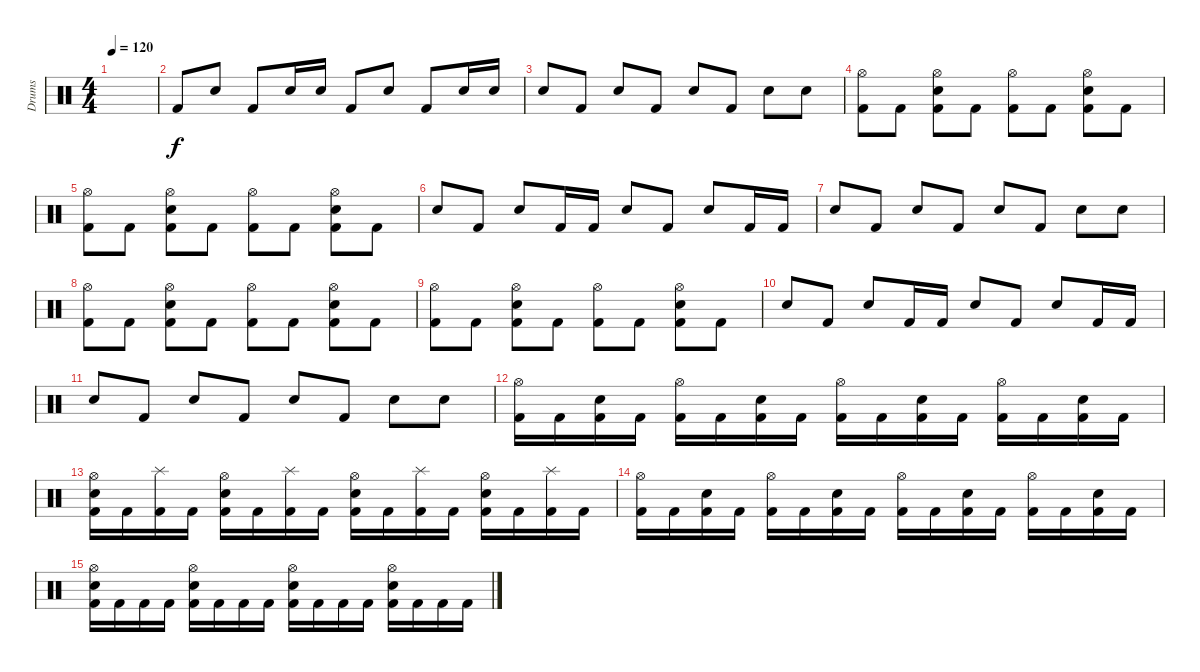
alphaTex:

\track ("Drums" "Drums") {instrument percussion}
\staff {score}
\articulation defaults
\ts (4 4)
\tempo 120
\clef neutral
\ks c
|
"Kick (hit) 2".8{dy f} "Electric Snare (hit)".8 "Kick (hit) 2".8 "Electric Snare (hit)".16 "Electric Snare (hit)".16 "Kick (hit) 2".8 "Electric Snare (hit)".8 "Kick (hit) 2".8 "Electric Snare (hit)".16 "Electric Snare (hit)".16 |
"Electric Snare (hit)".8 "Kick (hit) 2".8 "Electric Snare (hit)".8 "Kick (hit) 2".8 "Electric Snare (hit)".8 "Kick (hit) 2".8 "Electric Snare (hit)".8 "Electric Snare (hit)".8 |
("Hi-Hat (open)" "Kick (hit) 2").8 "Kick (hit) 2".8 ("Hi-Hat (open)" "Electric Snare (hit)" "Kick (hit) 2").8 "Kick (hit) 2".8 ("Hi-Hat (open)" "Kick (hit) 2").8 "Kick (hit) 2".8 ("Hi-Hat (open)" "Electric Snare (hit)" "Kick (hit) 2").8 "Kick (hit) 2".8 |
("Hi-Hat (open)" "Kick (hit) 2").8 "Kick (hit) 2".8 ("Hi-Hat (open)" "Electric Snare (hit)" "Kick (hit) 2").8 "Kick (hit) 2".8 ("Hi-Hat (open)" "Kick (hit) 2").8 "Kick (hit) 2".8 ("Hi-Hat (open)" "Electric Snare (hit)" "Kick (hit) 2").8 "Kick (hit) 2".8 |
"Electric Snare (hit)".8 "Kick (hit) 2".8 "Electric Snare (hit)".8 "Kick (hit) 2".16 "Kick (hit) 2".16 "Electric Snare (hit)".8 "Kick (hit) 2".8 "Electric Snare (hit)".8 "Kick (hit) 2".16 "Kick (hit) 2".16 |
"Electric Snare (hit)".8 "Kick (hit) 2".8 "Electric Snare (hit)".8 "Kick (hit) 2".8 "Electric Snare (hit)".8 "Kick (hit) 2".8 "Electric Snare (hit)".8 "Electric Snare (hit)".8 |
("Hi-Hat (open)" "Kick (hit) 2").8{volume 9} "Kick (hit) 2".8 ("Hi-Hat (open)" "Electric Snare (hit)" "Kick (hit) 2").8 "Kick (hit) 2".8 ("Hi-Hat (open)" "Kick (hit) 2").8 "Kick (hit) 2".8 ("Hi-Hat (open)" "Electric Snare (hit)" "Kick (hit) 2").8 "Kick (hit) 2".8 |
("Hi-Hat (open)" "Kick (hit) 2").8 "Kick (hit) 2".8 ("Hi-Hat (open)" "Electric Snare (hit)" "Kick (hit) 2").8 "Kick (hit) 2".8 ("Hi-Hat (open)" "Kick (hit) 2").8 "Kick (hit) 2".8 ("Hi-Hat (open)" "Electric Snare (hit)" "Kick (hit) 2").8 "Kick (hit) 2".8 |
"Electric Snare (hit)".8{volume 6} "Kick (hit) 2".8 "Electric Snare (hit)".8 "Kick (hit) 2".16 "Kick (hit) 2".16 "Electric Snare (hit)".8 "Kick (hit) 2".8 "Electric Snare (hit)".8 "Kick (hit) 2".16 "Kick (hit) 2".16 |
"Electric Snare (hit)".8 "Kick (hit) 2".8 "Electric Snare (hit)".8 "Kick (hit) 2".8 "Electric Snare (hit)".8 "Kick (hit) 2".8 "Electric Snare (hit)".8 "Electric Snare (hit)".8 |
("Hi-Hat (open)" "Kick (hit) 2").16 "Kick (hit) 2".16 ("Electric Snare (hit)" "Kick (hit) 2").16 "Kick (hit) 2".16 ("Hi-Hat (open)" "Kick (hit) 2").16 "Kick (hit) 2".16 ("Electric Snare (hit)" "Kick (hit) 2").16 "Kick (hit) 2".16 ("Hi-Hat (open)" "Kick (hit) 2").16 "Kick (hit) 2".16 ("Electric Snare (hit)" "Kick (hit) 2").16 "Kick (hit) 2".16 ("Hi-Hat (open)" "Kick (hit) 2").16 "Kick (hit) 2".16 ("Electric Snare (hit)" "Kick (hit) 2").16 "Kick (hit) 2".16 |
("Hi-Hat (open)" "Electric Snare (hit)" "Kick (hit) 2").16 "Kick (hit) 2".16 ("Splash (hit)" "Kick (hit) 2").16 "Kick (hit) 2".16 ("Hi-Hat (open)" "Electric Snare (hit)" "Kick (hit) 2").16 "Kick (hit) 2".16 ("Splash (hit)" "Kick (hit) 2").16 "Kick (hit) 2".16 ("Hi-Hat (open)" "Electric Snare (hit)" "Kick (hit) 2").16 "Kick (hit) 2".16 ("Splash (hit)" "Kick (hit) 2").16 "Kick (hit) 2".16 ("Hi-Hat (open)" "Electric Snare (hit)" "Kick (hit) 2").16 "Kick (hit) 2".16 ("Splash (hit)" "Kick (hit) 2").16 "Kick (hit) 2".16 |
("Hi-Hat (open)" "Kick (hit) 2").16{volume 0} "Kick (hit) 2".16 ("Electric Snare (hit)" "Kick (hit) 2").16 "Kick (hit) 2".16 ("Hi-Hat (open)" "Kick (hit) 2").16 "Kick (hit) 2".16 ("Electric Snare (hit)" "Kick (hit) 2").16 "Kick (hit) 2".16 ("Hi-Hat (open)" "Kick (hit) 2").16 "Kick (hit) 2".16 ("Electric Snare (hit)" "Kick (hit) 2").16 "Kick (hit) 2".16 ("Hi-Hat (open)" "Kick (hit) 2").16 "Kick (hit) 2".16 ("Electric Snare (hit)" "Kick (hit) 2").16 "Kick (hit) 2".16 |
("Hi-Hat (open)" "Electric Snare (hit)" "Kick (hit) 2").16 "Kick (hit) 2".16 "Kick (hit) 2".16 "Kick (hit) 2".16 ("Hi-Hat (open)" "Electric Snare (hit)" "Kick (hit) 2").16 "Kick (hit) 2".16 "Kick (hit) 2".16 "Kick (hit) 2".16 ("Hi-Hat (open)" "Electric Snare (hit)" "Kick (hit) 2").16 "Kick (hit) 2".16 "Kick (hit) 2".16 "Kick (hit) 2".16 ("Hi-Hat (open)" "Electric Snare (hit)" "Kick (hit) 2").16 "Kick (hit) 2".16 "Kick (hit) 2".16 "Kick (hit) 2".16
